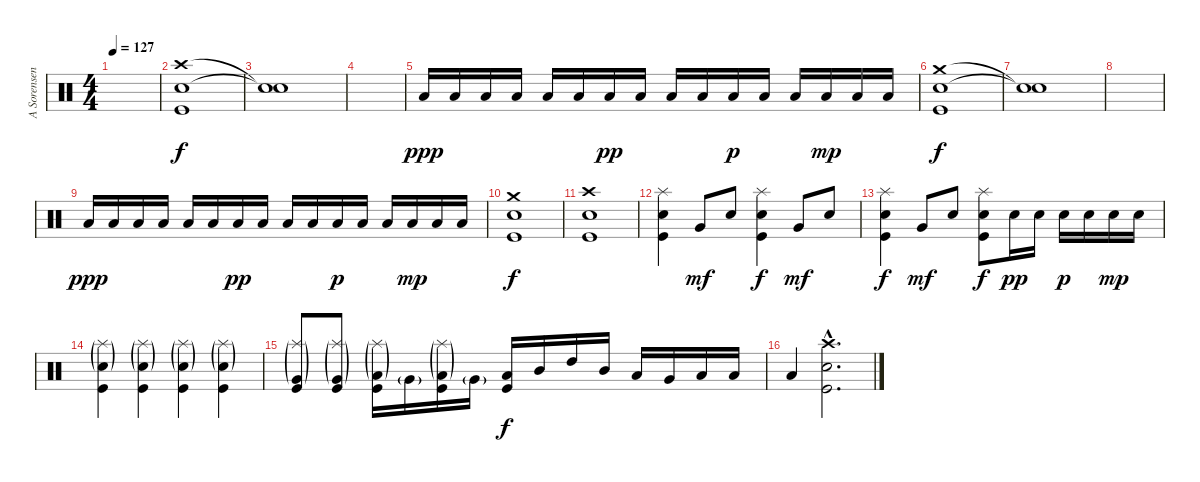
\track ("A Sorensen" "A Sorensen") {instrument percussion}
\staff {score}
\articulation defaults
\ts (4 4)
\tempo 127
\clef neutral
\ks c
|
("Crash high (hit)" "Electric Snare (hit)" "Kick (hit)").1 |
("Snare (hit)"{t} "Snare (hit)"{t}).1 |
|
"Low Floor Tom (hit)".16{dy ppp} "Low Floor Tom (hit)".16 "Low Floor Tom (hit)".16 "Low Floor Tom (hit)".16 "Low Floor Tom (hit)".16 "Low Floor Tom (hit)".16 "Low Floor Tom (hit)".16{dy pp} "Low Floor Tom (hit)".16 "Low Floor Tom (hit)".16 "Low Floor Tom (hit)".16 "Low Floor Tom (hit)".16{dy p} "Low Floor Tom (hit)".16 "Low Floor Tom (hit)".16 "Low Floor Tom (hit)".16{dy mp} "Low Floor Tom (hit)".16 "Low Floor Tom (hit)".16 |
("Crash medium (hit)" "Electric Snare (hit)" "Kick (hit)").1{dy f} |
("Snare (hit)"{t} "Snare (hit)"{t}).1 |
|
"Low Floor Tom (hit)".16{dy ppp} "Low Floor Tom (hit)".16 "Low Floor Tom (hit)".16 "Low Floor Tom (hit)".16 "Low Floor Tom (hit)".16 "Low Floor Tom (hit)".16 "Low Floor Tom (hit)".16{dy pp} "Low Floor Tom (hit)".16 "Low Floor Tom (hit)".16 "Low Floor Tom (hit)".16 "Low Floor Tom (hit)".16{dy p} "Low Floor Tom (hit)".16 "Low Floor Tom (hit)".16 "Low Floor Tom (hit)".16{dy mp} "Low Floor Tom (hit)".16 "Low Floor Tom (hit)".16 |
("Crash medium (hit)" "Electric Snare (hit)" "Kick (hit)").1{dy f} |
("Crash high (hit)" "Electric Snare (hit)" "Kick (hit)").1 |
("Splash (hit)" "Electric Snare (hit)" "Kick (hit)").4 "Very Low Tom (hit)".8{dy mf} "Snare (hit) 2".8 ("Splash (hit)" "Electric Snare (hit)" "Kick (hit)").4{dy f} "Very Low Tom (hit)".8{dy mf} "Snare (hit) 2".8 |
("Splash (hit)" "Electric Snare (hit)" "Kick (hit)").4{dy f} "Very Low Tom (hit)".8{dy mf} "Snare (hit) 2".8 ("Splash (hit)" "Electric Snare (hit)" "Kick (hit)").8{dy f} "Snare (hit) 2".16{dy pp} "Snare (hit) 2".16 "Snare (hit) 2".16{dy p} "Snare (hit) 2".16 "Snare (hit) 2".16{dy mp} "Snare (hit) 2".16 |
("Splash (hit)"{g} "Snare (hit) 2"{g} "Kick (hit)").4 ("Splash (hit)"{g} "Snare (hit) 2"{g} "Kick (hit)").4 ("Splash (hit)"{g} "Snare (hit) 2"{g} "Kick (hit)").4 ("Splash (hit)"{g} "Snare (hit) 2"{g} "Kick (hit)").4 |
("Splash (hit)"{g} "Very Low Tom (hit)"{g} "Kick (hit)").8 ("Splash (hit)"{g} "Very Low Tom (hit)"{g} "Kick (hit)").8 ("Splash (hit)"{g} "Low Tom (hit)"{g} "Kick (hit)").16 "Very Low Tom (hit)"{g}.16 ("Splash (hit)"{g} "Low Floor Tom (hit)"{g} "Kick (hit)").16 "Very Low Tom (hit)"{g}.16 ("Low Tom (hit)" "Kick (hit)").16{dy f} "Mid Tom (hit)".16 "High Tom (hit)".16 "Mid Tom (hit)".16 "Low Tom (hit)".16 "Very Low Tom (hit)".16 "Low Floor Tom (hit)".16 "Low Floor Tom (hit)".16 |
"Low Floor Tom (hit)".4 ("Crash high (hit)"{hac} "Electric Snare (hit)"{hac} "Kick (hit)"{hac}).2{d}
